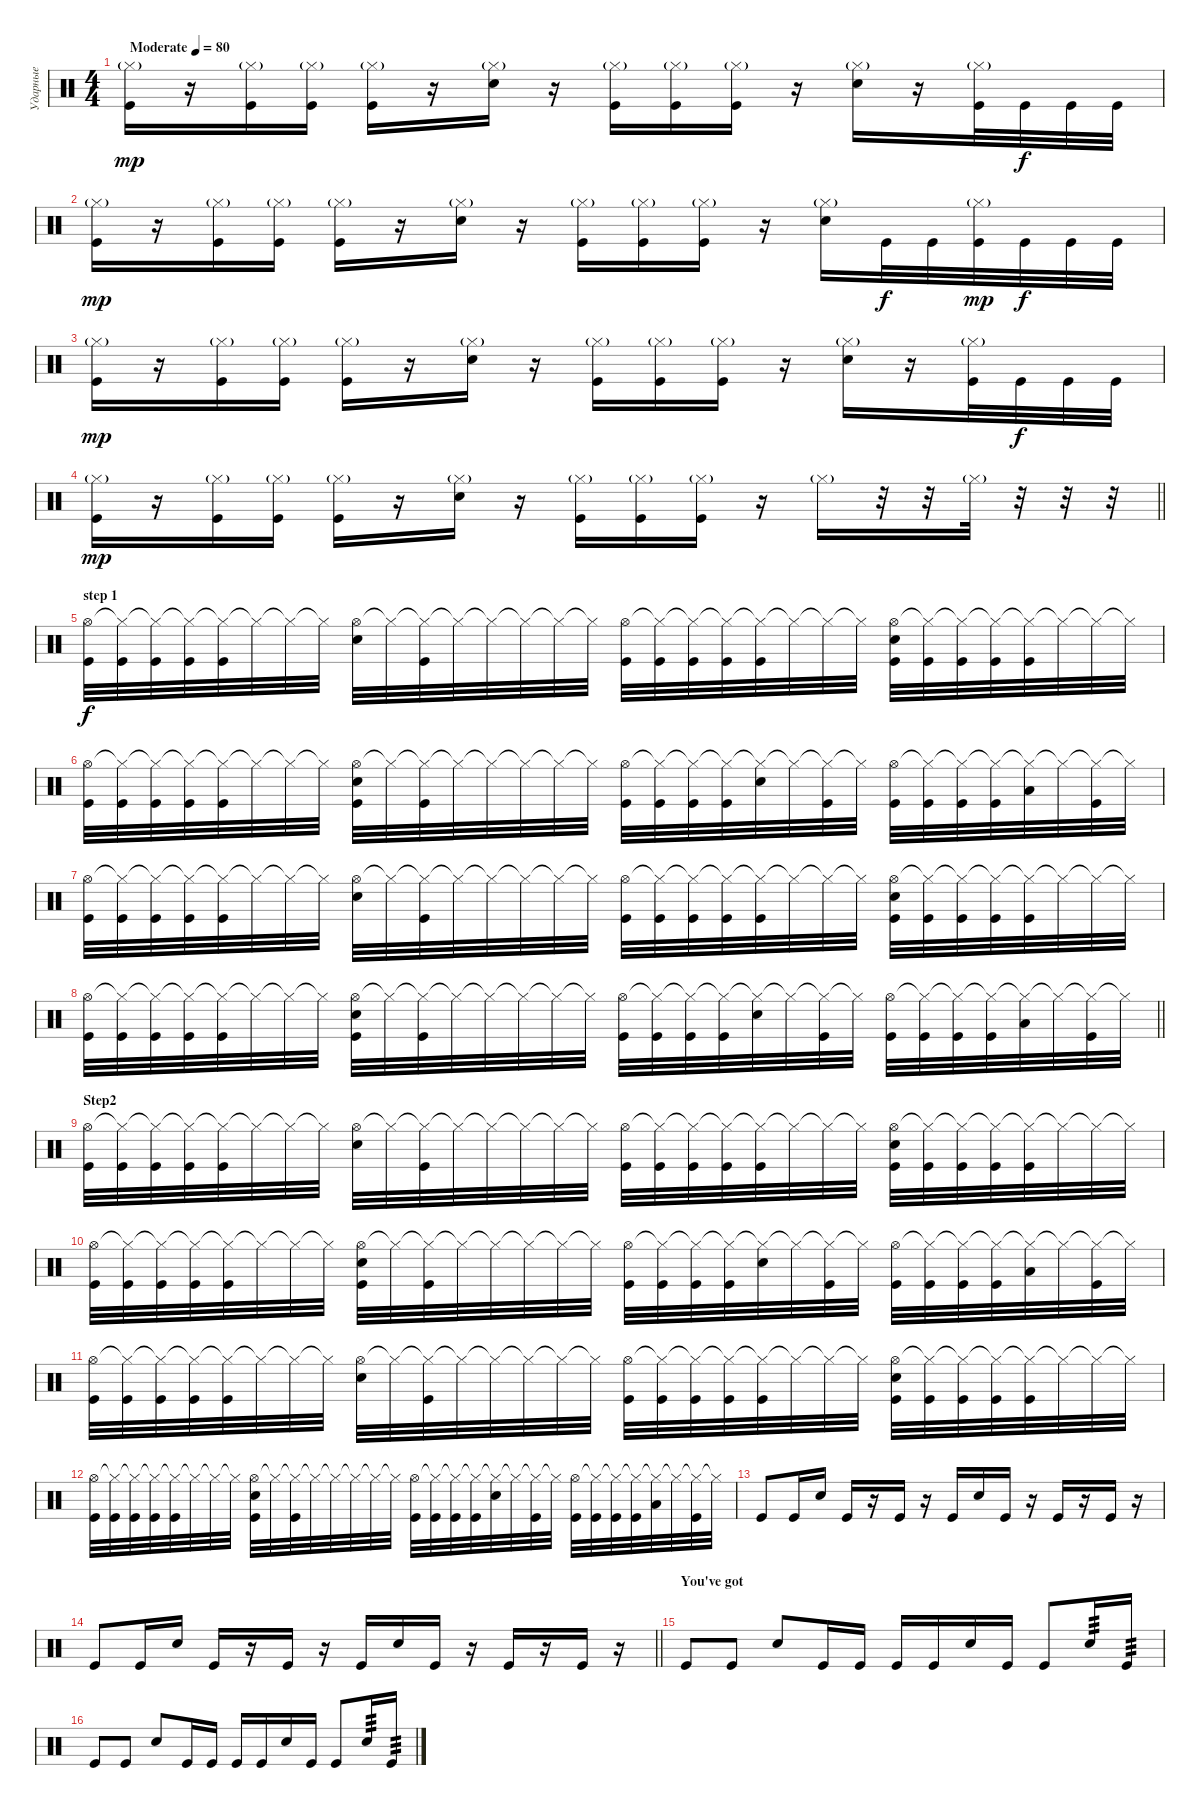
\track ("Ударные" "Ударные") {instrument percussion}
\staff {score}
\articulation defaults
\ts (4 4)
\tempo (80 "Moderate")
\clef neutral
\ks c
("Hi-Hat (closed)"{g} "Kick (hit)").16{dy mp} r.16 ("Hi-Hat (closed)"{g} "Kick (hit)").16 ("Hi-Hat (closed)"{g} "Kick (hit)").16 ("Hi-Hat (closed)"{g} "Kick (hit)").16 r.16 ("Hi-Hat (closed)"{g} "Electric Snare (hit)").16 r.16 ("Hi-Hat (closed)"{g} "Kick (hit)").16 ("Hi-Hat (closed)"{g} "Kick (hit)").16 ("Hi-Hat (closed)"{g} "Kick (hit)").16 r.16 ("Hi-Hat (closed)"{g} "Electric Snare (hit)").16 r.16 ("Hi-Hat (closed)"{g} "Kick (hit)").32 "Kick (hit)".32{dy f} "Kick (hit)".32 "Kick (hit)".32 |
("Hi-Hat (closed)"{g} "Kick (hit)").16{dy mp} r.16 ("Hi-Hat (closed)"{g} "Kick (hit)").16 ("Hi-Hat (closed)"{g} "Kick (hit)").16 ("Hi-Hat (closed)"{g} "Kick (hit)").16 r.16 ("Hi-Hat (closed)"{g} "Electric Snare (hit)").16 r.16 ("Hi-Hat (closed)"{g} "Kick (hit)").16 ("Hi-Hat (closed)"{g} "Kick (hit)").16 ("Hi-Hat (closed)"{g} "Kick (hit)").16 r.16 ("Hi-Hat (closed)"{g} "Electric Snare (hit)").16 "Kick (hit)".32{dy f} "Kick (hit)".32 ("Hi-Hat (closed)"{g} "Kick (hit)").32{dy mp} "Kick (hit)".32{dy f} "Kick (hit)".32 "Kick (hit)".32 |
("Hi-Hat (closed)"{g} "Kick (hit)").16{dy mp} r.16 ("Hi-Hat (closed)"{g} "Kick (hit)").16 ("Hi-Hat (closed)"{g} "Kick (hit)").16 ("Hi-Hat (closed)"{g} "Kick (hit)").16 r.16 ("Hi-Hat (closed)"{g} "Electric Snare (hit)").16 r.16 ("Hi-Hat (closed)"{g} "Kick (hit)").16 ("Hi-Hat (closed)"{g} "Kick (hit)").16 ("Hi-Hat (closed)"{g} "Kick (hit)").16 r.16 ("Hi-Hat (closed)"{g} "Electric Snare (hit)").16 r.16 ("Hi-Hat (closed)"{g} "Kick (hit)").32 "Kick (hit)".32{dy f} "Kick (hit)".32 "Kick (hit)".32 |
\barLineRight lightlight
("Hi-Hat (closed)"{g} "Kick (hit)").16{dy mp} r.16 ("Hi-Hat (closed)"{g} "Kick (hit)").16 ("Hi-Hat (closed)"{g} "Kick (hit)").16 ("Hi-Hat (closed)"{g} "Kick (hit)").16 r.16 ("Hi-Hat (closed)"{g} "Electric Snare (hit)").16 r.16 ("Hi-Hat (closed)"{g} "Kick (hit)").16 ("Hi-Hat (closed)"{g} "Kick (hit)").16 ("Hi-Hat (closed)"{g} "Kick (hit)").16 r.16 "Hi-Hat (closed)"{g}.16 r.32 r.32 "Hi-Hat (closed)"{g}.32 r.32 r.32 r.32 |
\section ("" "step 1")
("Hi-Hat (open)" "Kick (hit)").32{dy f} ("Hi-Hat (closed)"{t} "Kick (hit)").32 ("Hi-Hat (closed)"{t} "Kick (hit)").32 ("Hi-Hat (closed)"{t} "Kick (hit)").32 ("Hi-Hat (closed)"{t} "Kick (hit)").32 "Hi-Hat (closed)"{t}.32 "Hi-Hat (closed)"{t}.32 "Hi-Hat (closed)"{t}.32 ("Hi-Hat (open)" "Electric Snare (hit)").32 "Hi-Hat (closed)"{t}.32 ("Hi-Hat (closed)"{t} "Kick (hit)").32 "Hi-Hat (closed)"{t}.32 "Hi-Hat (closed)"{t}.32 "Hi-Hat (closed)"{t}.32 "Hi-Hat (closed)"{t}.32 "Hi-Hat (closed)"{t}.32 ("Hi-Hat (open)" "Kick (hit)").32 ("Hi-Hat (closed)"{t} "Kick (hit)").32 ("Hi-Hat (closed)"{t} "Kick (hit)").32 ("Hi-Hat (closed)"{t} "Kick (hit)").32 ("Hi-Hat (closed)"{t} "Kick (hit)").32 "Hi-Hat (closed)"{t}.32 "Hi-Hat (closed)"{t}.32 "Hi-Hat (closed)"{t}.32 ("Hi-Hat (open)" "Electric Snare (hit)" "Kick (hit)").32 ("Hi-Hat (closed)"{t} "Kick (hit)").32 ("Hi-Hat (closed)"{t} "Kick (hit)").32 ("Hi-Hat (closed)"{t} "Kick (hit)").32 ("Hi-Hat (closed)"{t} "Kick (hit)").32 "Hi-Hat (closed)"{t}.32 "Hi-Hat (closed)"{t}.32 "Hi-Hat (closed)"{t}.32 |
("Hi-Hat (open)" "Kick (hit)").32 ("Hi-Hat (closed)"{t} "Kick (hit)").32 ("Hi-Hat (closed)"{t} "Kick (hit)").32 ("Hi-Hat (closed)"{t} "Kick (hit)").32 ("Hi-Hat (closed)"{t} "Kick (hit)").32 "Hi-Hat (closed)"{t}.32 "Hi-Hat (closed)"{t}.32 "Hi-Hat (closed)"{t}.32 ("Hi-Hat (open)" "Electric Snare (hit)" "Kick (hit)").32 "Hi-Hat (closed)"{t}.32 ("Hi-Hat (closed)"{t} "Kick (hit)").32 "Hi-Hat (closed)"{t}.32 "Hi-Hat (closed)"{t}.32 "Hi-Hat (closed)"{t}.32 "Hi-Hat (closed)"{t}.32 "Hi-Hat (closed)"{t}.32 ("Hi-Hat (open)" "Kick (hit)").32 ("Hi-Hat (closed)"{t} "Kick (hit)").32 ("Hi-Hat (closed)"{t} "Kick (hit)").32 ("Hi-Hat (closed)"{t} "Kick (hit)").32 ("Hi-Hat (closed)"{t} "Snare (hit) 2").32 "Hi-Hat (closed)"{t}.32 ("Hi-Hat (closed)"{t} "Kick (hit)").32 "Hi-Hat (closed)"{t}.32 ("Hi-Hat (open)" "Kick (hit)").32 ("Hi-Hat (closed)"{t} "Kick (hit)").32 ("Hi-Hat (closed)"{t} "Kick (hit)").32 ("Hi-Hat (closed)"{t} "Kick (hit)").32 ("Hi-Hat (closed)"{t} "Low Floor Tom (hit)").32 "Hi-Hat (closed)"{t}.32 ("Hi-Hat (closed)"{t} "Kick (hit)").32 "Hi-Hat (closed)"{t}.32 |
("Hi-Hat (open)" "Kick (hit)").32 ("Hi-Hat (closed)"{t} "Kick (hit)").32 ("Hi-Hat (closed)"{t} "Kick (hit)").32 ("Hi-Hat (closed)"{t} "Kick (hit)").32 ("Hi-Hat (closed)"{t} "Kick (hit)").32 "Hi-Hat (closed)"{t}.32 "Hi-Hat (closed)"{t}.32 "Hi-Hat (closed)"{t}.32 ("Hi-Hat (open)" "Electric Snare (hit)").32 "Hi-Hat (closed)"{t}.32 ("Hi-Hat (closed)"{t} "Kick (hit)").32 "Hi-Hat (closed)"{t}.32 "Hi-Hat (closed)"{t}.32 "Hi-Hat (closed)"{t}.32 "Hi-Hat (closed)"{t}.32 "Hi-Hat (closed)"{t}.32 ("Hi-Hat (open)" "Kick (hit)").32 ("Hi-Hat (closed)"{t} "Kick (hit)").32 ("Hi-Hat (closed)"{t} "Kick (hit)").32 ("Hi-Hat (closed)"{t} "Kick (hit)").32 ("Hi-Hat (closed)"{t} "Kick (hit)").32 "Hi-Hat (closed)"{t}.32 "Hi-Hat (closed)"{t}.32 "Hi-Hat (closed)"{t}.32 ("Hi-Hat (open)" "Electric Snare (hit)" "Kick (hit)").32 ("Hi-Hat (closed)"{t} "Kick (hit)").32 ("Hi-Hat (closed)"{t} "Kick (hit)").32 ("Hi-Hat (closed)"{t} "Kick (hit)").32 ("Hi-Hat (closed)"{t} "Kick (hit)").32 "Hi-Hat (closed)"{t}.32 "Hi-Hat (closed)"{t}.32 "Hi-Hat (closed)"{t}.32 |
\barLineRight lightlight
("Hi-Hat (open)" "Kick (hit)").32 ("Hi-Hat (closed)"{t} "Kick (hit)").32 ("Hi-Hat (closed)"{t} "Kick (hit)").32 ("Hi-Hat (closed)"{t} "Kick (hit)").32 ("Hi-Hat (closed)"{t} "Kick (hit)").32 "Hi-Hat (closed)"{t}.32 "Hi-Hat (closed)"{t}.32 "Hi-Hat (closed)"{t}.32 ("Hi-Hat (open)" "Electric Snare (hit)" "Kick (hit)").32 "Hi-Hat (closed)"{t}.32 ("Hi-Hat (closed)"{t} "Kick (hit)").32 "Hi-Hat (closed)"{t}.32 "Hi-Hat (closed)"{t}.32 "Hi-Hat (closed)"{t}.32 "Hi-Hat (closed)"{t}.32 "Hi-Hat (closed)"{t}.32 ("Hi-Hat (open)" "Kick (hit)").32 ("Hi-Hat (closed)"{t} "Kick (hit)").32 ("Hi-Hat (closed)"{t} "Kick (hit)").32 ("Hi-Hat (closed)"{t} "Kick (hit)").32 ("Hi-Hat (closed)"{t} "Snare (hit) 2").32 "Hi-Hat (closed)"{t}.32 ("Hi-Hat (closed)"{t} "Kick (hit)").32 "Hi-Hat (closed)"{t}.32 ("Hi-Hat (open)" "Kick (hit)").32 ("Hi-Hat (closed)"{t} "Kick (hit)").32 ("Hi-Hat (closed)"{t} "Kick (hit)").32 ("Hi-Hat (closed)"{t} "Kick (hit)").32 ("Hi-Hat (closed)"{t} "Low Floor Tom (hit)").32 "Hi-Hat (closed)"{t}.32 ("Hi-Hat (closed)"{t} "Kick (hit)").32 "Hi-Hat (closed)"{t}.32 |
\section ("" "Step2")
("Hi-Hat (open)" "Kick (hit)").32 ("Hi-Hat (closed)"{t} "Kick (hit)").32 ("Hi-Hat (closed)"{t} "Kick (hit)").32 ("Hi-Hat (closed)"{t} "Kick (hit)").32 ("Hi-Hat (closed)"{t} "Kick (hit)").32 "Hi-Hat (closed)"{t}.32 "Hi-Hat (closed)"{t}.32 "Hi-Hat (closed)"{t}.32 ("Hi-Hat (open)" "Electric Snare (hit)").32 "Hi-Hat (closed)"{t}.32 ("Hi-Hat (closed)"{t} "Kick (hit)").32 "Hi-Hat (closed)"{t}.32 "Hi-Hat (closed)"{t}.32 "Hi-Hat (closed)"{t}.32 "Hi-Hat (closed)"{t}.32 "Hi-Hat (closed)"{t}.32 ("Hi-Hat (open)" "Kick (hit)").32 ("Hi-Hat (closed)"{t} "Kick (hit)").32 ("Hi-Hat (closed)"{t} "Kick (hit)").32 ("Hi-Hat (closed)"{t} "Kick (hit)").32 ("Hi-Hat (closed)"{t} "Kick (hit)").32 "Hi-Hat (closed)"{t}.32 "Hi-Hat (closed)"{t}.32 "Hi-Hat (closed)"{t}.32 ("Hi-Hat (open)" "Electric Snare (hit)" "Kick (hit)").32 ("Hi-Hat (closed)"{t} "Kick (hit)").32 ("Hi-Hat (closed)"{t} "Kick (hit)").32 ("Hi-Hat (closed)"{t} "Kick (hit)").32 ("Hi-Hat (closed)"{t} "Kick (hit)").32 "Hi-Hat (closed)"{t}.32 "Hi-Hat (closed)"{t}.32 "Hi-Hat (closed)"{t}.32 |
("Hi-Hat (open)" "Kick (hit)").32 ("Hi-Hat (closed)"{t} "Kick (hit)").32 ("Hi-Hat (closed)"{t} "Kick (hit)").32 ("Hi-Hat (closed)"{t} "Kick (hit)").32 ("Hi-Hat (closed)"{t} "Kick (hit)").32 "Hi-Hat (closed)"{t}.32 "Hi-Hat (closed)"{t}.32 "Hi-Hat (closed)"{t}.32 ("Hi-Hat (open)" "Electric Snare (hit)" "Kick (hit)").32 "Hi-Hat (closed)"{t}.32 ("Hi-Hat (closed)"{t} "Kick (hit)").32 "Hi-Hat (closed)"{t}.32 "Hi-Hat (closed)"{t}.32 "Hi-Hat (closed)"{t}.32 "Hi-Hat (closed)"{t}.32 "Hi-Hat (closed)"{t}.32 ("Hi-Hat (open)" "Kick (hit)").32 ("Hi-Hat (closed)"{t} "Kick (hit)").32 ("Hi-Hat (closed)"{t} "Kick (hit)").32 ("Hi-Hat (closed)"{t} "Kick (hit)").32 ("Hi-Hat (closed)"{t} "Snare (hit) 2").32 "Hi-Hat (closed)"{t}.32 ("Hi-Hat (closed)"{t} "Kick (hit)").32 "Hi-Hat (closed)"{t}.32 ("Hi-Hat (open)" "Kick (hit)").32 ("Hi-Hat (closed)"{t} "Kick (hit)").32 ("Hi-Hat (closed)"{t} "Kick (hit)").32 ("Hi-Hat (closed)"{t} "Kick (hit)").32 ("Hi-Hat (closed)"{t} "Low Floor Tom (hit)").32 "Hi-Hat (closed)"{t}.32 ("Hi-Hat (closed)"{t} "Kick (hit)").32 "Hi-Hat (closed)"{t}.32 |
("Hi-Hat (open)" "Kick (hit)").32 ("Hi-Hat (closed)"{t} "Kick (hit)").32 ("Hi-Hat (closed)"{t} "Kick (hit)").32 ("Hi-Hat (closed)"{t} "Kick (hit)").32 ("Hi-Hat (closed)"{t} "Kick (hit)").32 "Hi-Hat (closed)"{t}.32 "Hi-Hat (closed)"{t}.32 "Hi-Hat (closed)"{t}.32 ("Hi-Hat (open)" "Electric Snare (hit)").32 "Hi-Hat (closed)"{t}.32 ("Hi-Hat (closed)"{t} "Kick (hit)").32 "Hi-Hat (closed)"{t}.32 "Hi-Hat (closed)"{t}.32 "Hi-Hat (closed)"{t}.32 "Hi-Hat (closed)"{t}.32 "Hi-Hat (closed)"{t}.32 ("Hi-Hat (open)" "Kick (hit)").32 ("Hi-Hat (closed)"{t} "Kick (hit)").32 ("Hi-Hat (closed)"{t} "Kick (hit)").32 ("Hi-Hat (closed)"{t} "Kick (hit)").32 ("Hi-Hat (closed)"{t} "Kick (hit)").32 "Hi-Hat (closed)"{t}.32 "Hi-Hat (closed)"{t}.32 "Hi-Hat (closed)"{t}.32 ("Hi-Hat (open)" "Electric Snare (hit)" "Kick (hit)").32 ("Hi-Hat (closed)"{t} "Kick (hit)").32 ("Hi-Hat (closed)"{t} "Kick (hit)").32 ("Hi-Hat (closed)"{t} "Kick (hit)").32 ("Hi-Hat (closed)"{t} "Kick (hit)").32 "Hi-Hat (closed)"{t}.32 "Hi-Hat (closed)"{t}.32 "Hi-Hat (closed)"{t}.32 |
("Hi-Hat (open)" "Kick (hit)").32 ("Hi-Hat (closed)"{t} "Kick (hit)").32 ("Hi-Hat (closed)"{t} "Kick (hit)").32 ("Hi-Hat (closed)"{t} "Kick (hit)").32 ("Hi-Hat (closed)"{t} "Kick (hit)").32 "Hi-Hat (closed)"{t}.32 "Hi-Hat (closed)"{t}.32 "Hi-Hat (closed)"{t}.32 ("Hi-Hat (open)" "Electric Snare (hit)" "Kick (hit)").32 "Hi-Hat (closed)"{t}.32 ("Hi-Hat (closed)"{t} "Kick (hit)").32 "Hi-Hat (closed)"{t}.32 "Hi-Hat (closed)"{t}.32 "Hi-Hat (closed)"{t}.32 "Hi-Hat (closed)"{t}.32 "Hi-Hat (closed)"{t}.32 ("Hi-Hat (open)" "Kick (hit)").32 ("Hi-Hat (closed)"{t} "Kick (hit)").32 ("Hi-Hat (closed)"{t} "Kick (hit)").32 ("Hi-Hat (closed)"{t} "Kick (hit)").32 ("Hi-Hat (closed)"{t} "Snare (hit) 2").32 "Hi-Hat (closed)"{t}.32 ("Hi-Hat (closed)"{t} "Kick (hit)").32 "Hi-Hat (closed)"{t}.32 ("Hi-Hat (open)" "Kick (hit)").32 ("Hi-Hat (closed)"{t} "Kick (hit)").32 ("Hi-Hat (closed)"{t} "Kick (hit)").32 ("Hi-Hat (closed)"{t} "Kick (hit)").32 ("Hi-Hat (closed)"{t} "Low Floor Tom (hit)").32 "Hi-Hat (closed)"{t}.32 ("Hi-Hat (closed)"{t} "Kick (hit)").32 "Hi-Hat (closed)"{t}.32 |
"Kick (hit)".8 "Kick (hit)".16 "Electric Snare (hit)".16 "Kick (hit)".16 r.16 "Kick (hit)".16 r.16 "Kick (hit)".16 "Electric Snare (hit)".16 "Kick (hit)".16 r.16 "Kick (hit)".16 r.16 "Kick (hit)".16 r.16 |
\barLineRight lightlight "Kick (hit)".8 "Kick (hit)".16 "Electric Snare (hit)".16 "Kick (hit)".16
r.16 "Kick (hit)".16 r.16 "Kick (hit)".16 "Electric Snare (hit)".16 "Kick (hit)".16 r.16 "Kick (hit)".16 r.16 "Kick (hit)".16 r.16 |
\section ("" "You've got")
"Kick (hit)".8 "Kick (hit)".8 "Electric Snare (hit)".8 "Kick (hit)".16 "Kick (hit)".16 "Kick (hit)".16 "Kick (hit)".16 "Electric Snare (hit)".16 "Kick (hit)".16 "Kick (hit)".8 "Electric Snare (hit)".16{tp 3} "Kick (hit)".16{tp 3} |
"Kick (hit)".8 "Kick (hit)".8 "Electric Snare (hit)".8 "Kick (hit)".16 "Kick (hit)".16 "Kick (hit)".16 "Kick (hit)".16 "Electric Snare (hit)".16 "Kick (hit)".16 "Kick (hit)".8 "Electric Snare (hit)".16{tp 3} "Kick (hit)".16{tp 3}
